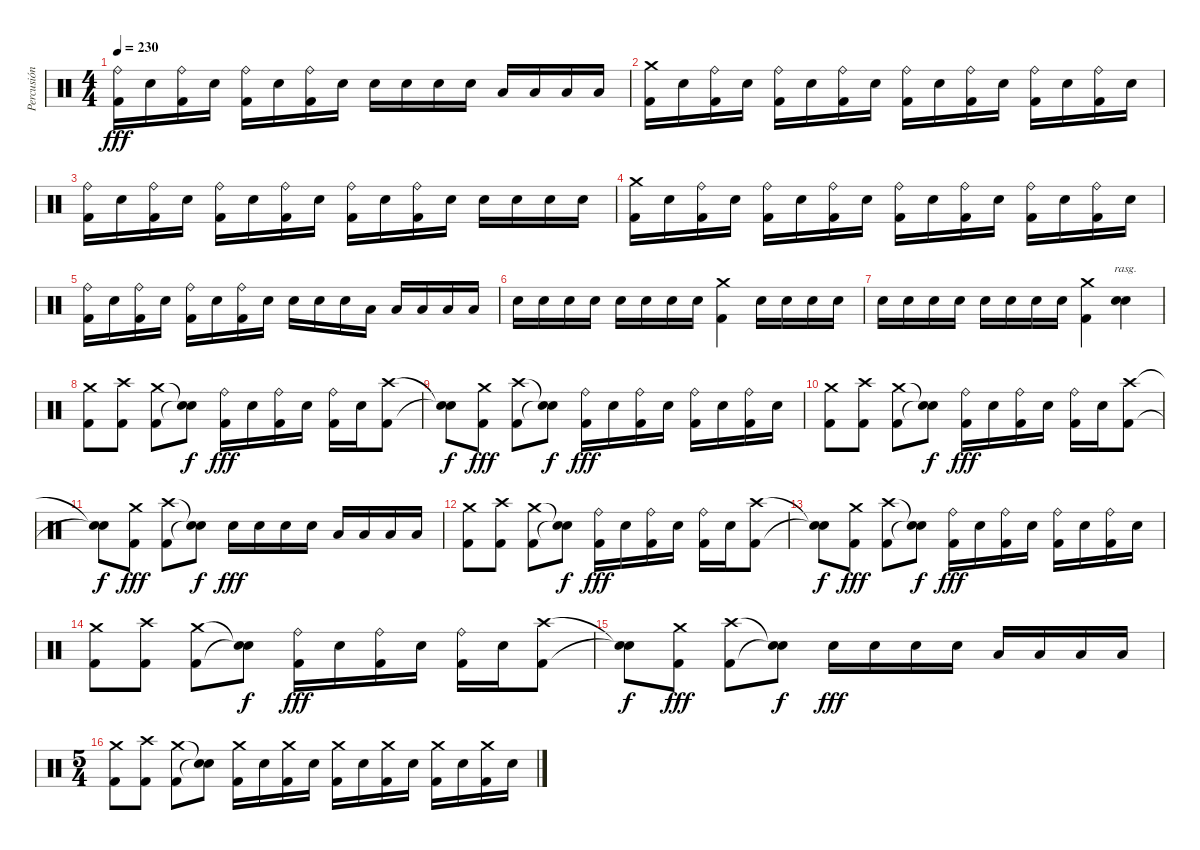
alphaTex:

\track ("Percusión" "Percusión") {instrument percussion}
\staff {score}
\articulation defaults
\ts (4 4)
\tempo 230
\clef neutral
\ks c
("Ride (bell)" "Kick (hit) 2").16{dy fff} "Electric Snare (hit)".16 ("Ride (bell)" "Kick (hit) 2").16 "Electric Snare (hit)".16 ("Ride (bell)" "Kick (hit) 2").16 "Electric Snare (hit)".16 ("Ride (bell)" "Kick (hit) 2").16 "Electric Snare (hit)".16 "Electric Snare (hit)".16 "Electric Snare (hit)".16 "Electric Snare (hit)".16 "Electric Snare (hit)".16 "Low Tom (hit)".16 "Low Tom (hit)".16 "Low Tom (hit)".16 "Low Tom (hit)".16 |
("Crash medium (hit)" "Kick (hit) 2").16 "Electric Snare (hit)".16 ("Ride (bell)" "Kick (hit) 2").16 "Electric Snare (hit)".16 ("Ride (bell)" "Kick (hit) 2").16 "Electric Snare (hit)".16 ("Ride (bell)" "Kick (hit) 2").16 "Electric Snare (hit)".16 ("Ride (bell)" "Kick (hit) 2").16 "Electric Snare (hit)".16 ("Ride (bell)" "Kick (hit) 2").16 "Electric Snare (hit)".16 ("Ride (bell)" "Kick (hit) 2").16 "Electric Snare (hit)".16 ("Ride (bell)" "Kick (hit) 2").16 "Electric Snare (hit)".16 |
("Ride (bell)" "Kick (hit) 2").16 "Electric Snare (hit)".16 ("Ride (bell)" "Kick (hit) 2").16 "Electric Snare (hit)".16 ("Ride (bell)" "Kick (hit) 2").16 "Electric Snare (hit)".16 ("Ride (bell)" "Kick (hit) 2").16 "Electric Snare (hit)".16 ("Ride (bell)" "Kick (hit) 2").16 "Electric Snare (hit)".16 ("Ride (bell)" "Kick (hit) 2").16 "Electric Snare (hit)".16 "Electric Snare (hit)".16 "Electric Snare (hit)".16 "Electric Snare (hit)".16 "Electric Snare (hit)".16 |
("Crash medium (hit)" "Kick (hit) 2").16 "Electric Snare (hit)".16 ("Ride (bell)" "Kick (hit) 2").16 "Electric Snare (hit)".16 ("Ride (bell)" "Kick (hit) 2").16 "Electric Snare (hit)".16 ("Ride (bell)" "Kick (hit) 2").16 "Electric Snare (hit)".16 ("Ride (bell)" "Kick (hit) 2").16 "Electric Snare (hit)".16 ("Ride (bell)" "Kick (hit) 2").16 "Electric Snare (hit)".16 ("Ride (bell)" "Kick (hit) 2").16 "Electric Snare (hit)".16 ("Ride (bell)" "Kick (hit) 2").16 "Electric Snare (hit)".16 |
("Ride (bell)" "Kick (hit) 2").16 "Electric Snare (hit)".16 ("Ride (bell)" "Kick (hit) 2").16 "Electric Snare (hit)".16 ("Ride (bell)" "Kick (hit) 2").16 "Electric Snare (hit)".16 ("Ride (bell)" "Kick (hit) 2").16 "Electric Snare (hit)".16 "Electric Snare (hit)".16 "Electric Snare (hit)".16 "Electric Snare (hit)".16 "Low Tom (hit)".16 "Low Tom (hit)".16 "Low Tom (hit)".16 "Low Tom (hit)".16 "Low Tom (hit)".16 |
"Electric Snare (hit)".16 "Electric Snare (hit)".16 "Electric Snare (hit)".16 "Electric Snare (hit)".16 "Electric Snare (hit)".16 "Electric Snare (hit)".16 "Electric Snare (hit)".16 "Electric Snare (hit)".16 ("Crash medium (hit)" "Kick (hit) 2").4 "Electric Snare (hit)".16 "Electric Snare (hit)".16 "Electric Snare (hit)".16 "Electric Snare (hit)".16 |
"Electric Snare (hit)".16 "Electric Snare (hit)".16 "Electric Snare (hit)".16 "Electric Snare (hit)".16 "Electric Snare (hit)".16 "Electric Snare (hit)".16 "Electric Snare (hit)".16 "Electric Snare (hit)".16 ("Crash medium (hit)" "Kick (hit) 2").4 ("Electric Snare (hit)" "Electric Snare (hit)").4{bu 240 rasg ii} |
("Crash medium (hit)" "Kick (hit) 2").8 ("Crash high (hit)" "Kick (hit) 2").8 ("Crash medium (hit)" "Kick (hit) 2").8 ("Snare (hit)"{t} "Snare (hit)"{t}).8{dy f} ("Ride (bell)" "Kick (hit) 2").16{dy fff} "Electric Snare (hit)".16 ("Ride (bell)" "Kick (hit) 2").16 "Electric Snare (hit)".16 ("Ride (bell)" "Kick (hit) 2").16 "Electric Snare (hit)".16 ("Crash high (hit)" "Kick (hit) 2").8 |
("Snare (hit)"{t} "Snare (hit)"{t}).8{dy f} ("Crash medium (hit)" "Kick (hit) 2").8{dy fff} ("Crash high (hit)" "Kick (hit) 2").8 ("Snare (hit)"{t} "Snare (hit)"{t}).8{dy f} ("Ride (bell)" "Kick (hit) 2").16{dy fff} "Electric Snare (hit)".16 ("Ride (bell)" "Kick (hit) 2").16 "Electric Snare (hit)".16 ("Ride (bell)" "Kick (hit) 2").16 "Electric Snare (hit)".16 ("Ride (bell)" "Kick (hit) 2").16 "Electric Snare (hit)".16 |
("Crash medium (hit)" "Kick (hit) 2").8 ("Crash high (hit)" "Kick (hit) 2").8 ("Crash medium (hit)" "Kick (hit) 2").8 ("Snare (hit)"{t} "Snare (hit)"{t}).8{dy f} ("Ride (bell)" "Kick (hit) 2").16{dy fff} "Electric Snare (hit)".16 ("Ride (bell)" "Kick (hit) 2").16 "Electric Snare (hit)".16 ("Ride (bell)" "Kick (hit) 2").16 "Electric Snare (hit)".16 ("Crash high (hit)" "Kick (hit) 2").8 |
("Snare (hit)"{t} "Snare (hit)"{t}).8{dy f} ("Crash medium (hit)" "Kick (hit) 2").8{dy fff} ("Crash high (hit)" "Kick (hit) 2").8 ("Snare (hit)"{t} "Snare (hit)"{t}).8{dy f} "Electric Snare (hit)".16{dy fff} "Electric Snare (hit)".16 "Electric Snare (hit)".16 "Electric Snare (hit)".16 "Low Tom (hit)".16 "Low Tom (hit)".16 "Low Tom (hit)".16 "Low Tom (hit)".16 |
("Crash medium (hit)" "Kick (hit) 2").8 ("Crash high (hit)" "Kick (hit) 2").8 ("Crash medium (hit)" "Kick (hit) 2").8 ("Snare (hit)"{t} "Snare (hit)"{t}).8{dy f} ("Ride (bell)" "Kick (hit) 2").16{dy fff} "Electric Snare (hit)".16 ("Ride (bell)" "Kick (hit) 2").16 "Electric Snare (hit)".16 ("Ride (bell)" "Kick (hit) 2").16 "Electric Snare (hit)".16 ("Crash high (hit)" "Kick (hit) 2").8 |
("Snare (hit)"{t} "Snare (hit)"{t}).8{dy f} ("Crash medium (hit)" "Kick (hit) 2").8{dy fff} ("Crash high (hit)" "Kick (hit) 2").8 ("Snare (hit)"{t} "Snare (hit)"{t}).8{dy f} ("Ride (bell)" "Kick (hit) 2").16{dy fff} "Electric Snare (hit)".16 ("Ride (bell)" "Kick (hit) 2").16 "Electric Snare (hit)".16 ("Ride (bell)" "Kick (hit) 2").16 "Electric Snare (hit)".16 ("Ride (bell)" "Kick (hit) 2").16 "Electric Snare (hit)".16 |
("Crash medium (hit)" "Kick (hit) 2").8 ("Crash high (hit)" "Kick (hit) 2").8 ("Crash medium (hit)" "Kick (hit) 2").8 ("Snare (hit)"{t} "Snare (hit)"{t}).8{dy f} ("Ride (bell)" "Kick (hit) 2").16{dy fff} "Electric Snare (hit)".16 ("Ride (bell)" "Kick (hit) 2").16 "Electric Snare (hit)".16 ("Ride (bell)" "Kick (hit) 2").16 "Electric Snare (hit)".16 ("Crash high (hit)" "Kick (hit) 2").8 |
("Snare (hit)"{t} "Snare (hit)"{t}).8{dy f} ("Crash medium (hit)" "Kick (hit) 2").8{dy fff} ("Crash high (hit)" "Kick (hit) 2").8 ("Snare (hit)"{t} "Snare (hit)"{t}).8{dy f} "Electric Snare (hit)".16{dy fff} "Electric Snare (hit)".16 "Electric Snare (hit)".16 "Electric Snare (hit)".16 "Low Tom (hit)".16 "Low Tom (hit)".16 "Low Tom (hit)".16 "Low Tom (hit)".16 |
\ts (5 4)
("Crash medium (hit)" "Kick (hit) 2").8 ("Crash high (hit)" "Kick (hit) 2").8 ("Crash medium (hit)" "Kick (hit) 2").8 ("Snare (hit)"{t} "Snare (hit)"{t}).8 ("Crash medium (hit)" "Kick (hit) 2").16 "Electric Snare (hit)".16 ("Crash medium (hit)" "Kick (hit) 2").16 "Electric Snare (hit)".16 ("Crash medium (hit)" "Kick (hit) 2").16 "Electric Snare (hit)".16 ("Crash medium (hit)" "Kick (hit) 2").16 "Electric Snare (hit)".16 ("Crash medium (hit)" "Kick (hit) 2").16 "Electric Snare (hit)".16 ("Crash medium (hit)" "Kick (hit) 2").16 "Electric Snare (hit)".16
